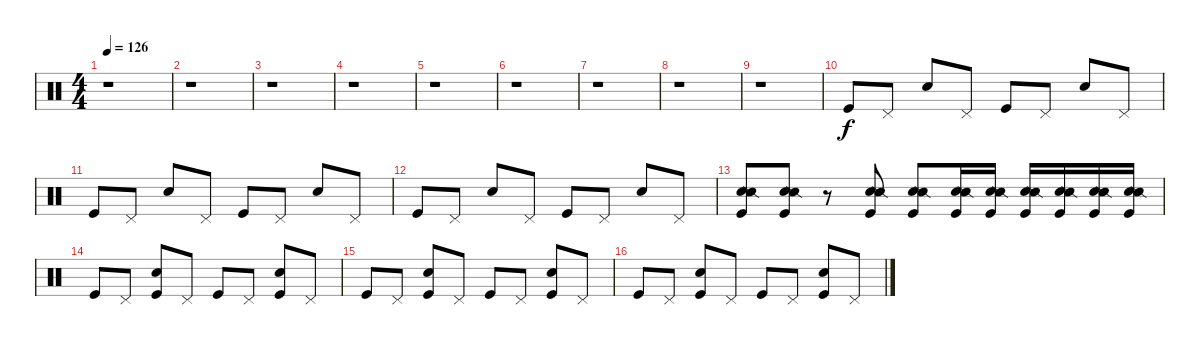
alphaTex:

\track "" {instrument percussion}
\staff {score}
\articulation defaults
\ts (4 4)
\tempo 126
\clef neutral
\ks c
r.1{dy f} |
r.1 |
r.1 |
r.1 |
r.1 |
r.1 |
r.1 |
r.1 |
r.1 |
"Kick (hit)".8 "Pedal Hi-Hat (hit)".8 "Electric Snare (hit)".8 "Pedal Hi-Hat (hit)".8 "Kick (hit)".8 "Pedal Hi-Hat (hit)".8 "Electric Snare (hit)".8 "Pedal Hi-Hat (hit)".8 |
"Kick (hit)".8 "Pedal Hi-Hat (hit)".8 "Electric Snare (hit)".8 "Pedal Hi-Hat (hit)".8 "Kick (hit)".8 "Pedal Hi-Hat (hit)".8 "Electric Snare (hit)".8 "Pedal Hi-Hat (hit)".8 |
"Kick (hit)".8 "Pedal Hi-Hat (hit)".8 "Electric Snare (hit)".8 "Pedal Hi-Hat (hit)".8 "Kick (hit)".8 "Pedal Hi-Hat (hit)".8 "Electric Snare (hit)".8 "Pedal Hi-Hat (hit)".8 |
("Electric Snare (hit)" "Kick (hit)" "Snare (side stick) 2").8 ("Electric Snare (hit)" "Kick (hit)" "Snare (side stick) 2").8 r.8 ("Electric Snare (hit)" "Kick (hit)" "Snare (side stick) 2").8 ("Electric Snare (hit)" "Kick (hit)" "Snare (side stick) 2").8 ("Electric Snare (hit)" "Kick (hit)" "Snare (side stick) 2").16 ("Electric Snare (hit)" "Kick (hit)" "Snare (side stick) 2").16 ("Electric Snare (hit)" "Kick (hit)" "Snare (side stick) 2").16 ("Electric Snare (hit)" "Kick (hit)" "Snare (side stick) 2").16 ("Electric Snare (hit)" "Kick (hit)" "Snare (side stick) 2").16 ("Electric Snare (hit)" "Kick (hit)" "Snare (side stick) 2").16 |
"Kick (hit)".8 "Pedal Hi-Hat (hit)".8 ("Kick (hit)" "Hand Clap (hit)").8 "Pedal Hi-Hat (hit)".8 "Kick (hit)".8 "Pedal Hi-Hat (hit)".8 ("Kick (hit)" "Hand Clap (hit)").8 "Pedal Hi-Hat (hit)".8 |
"Kick (hit)".8 "Pedal Hi-Hat (hit)".8 ("Kick (hit)" "Hand Clap (hit)").8 "Pedal Hi-Hat (hit)".8 "Kick (hit)".8 "Pedal Hi-Hat (hit)".8 ("Kick (hit)" "Hand Clap (hit)").8 "Pedal Hi-Hat (hit)".8 |
"Kick (hit)".8 "Pedal Hi-Hat (hit)".8 ("Kick (hit)" "Hand Clap (hit)").8 "Pedal Hi-Hat (hit)".8 "Kick (hit)".8 "Pedal Hi-Hat (hit)".8 ("Kick (hit)" "Hand Clap (hit)").8 "Pedal Hi-Hat (hit)".8
